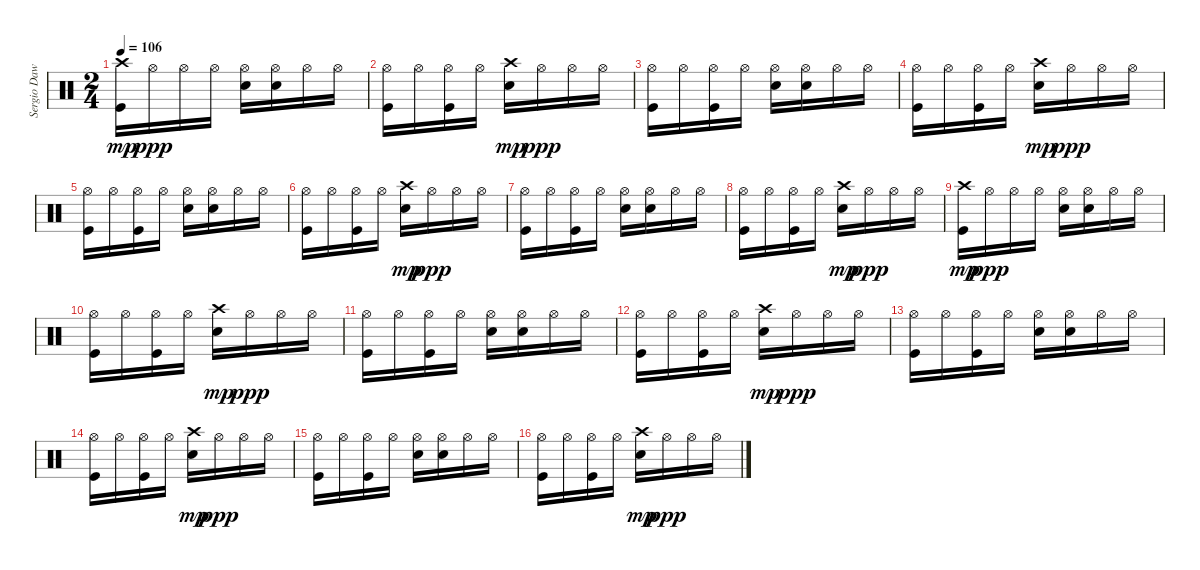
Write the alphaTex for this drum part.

\track ("Sergio Dawi" "Sergio Daw") {instrument percussion}
\staff {score}
\articulation defaults
\ts (2 4)
\tempo 106
\clef neutral
\ks c
("Kick (hit)" "Crash high (hit)").16{dy mp} "Hi-Hat (open)".16{dy ppp} "Hi-Hat (open)".16 "Hi-Hat (open)".16 ("Electric Snare (hit)" "Hi-Hat (open)").16 ("Electric Snare (hit)" "Hi-Hat (open)").16 "Hi-Hat (open)".16 "Hi-Hat (open)".16 |
("Kick (hit)" "Hi-Hat (open)").16 "Hi-Hat (open)".16 ("Kick (hit)" "Hi-Hat (open)").16 "Hi-Hat (open)".16 ("Electric Snare (hit)" "Crash high (hit)").16{dy mp} "Hi-Hat (open)".16{dy ppp} "Hi-Hat (open)".16 "Hi-Hat (open)".16 |
("Kick (hit)" "Hi-Hat (open)").16 "Hi-Hat (open)".16 ("Kick (hit)" "Hi-Hat (open)").16 "Hi-Hat (open)".16 ("Electric Snare (hit)" "Hi-Hat (open)").16 ("Electric Snare (hit)" "Hi-Hat (open)").16 "Hi-Hat (open)".16 "Hi-Hat (open)".16 |
("Kick (hit)" "Hi-Hat (open)").16 "Hi-Hat (open)".16 ("Kick (hit)" "Hi-Hat (open)").16 "Hi-Hat (open)".16 ("Electric Snare (hit)" "Crash high (hit)").16{dy mp} "Hi-Hat (open)".16{dy ppp} "Hi-Hat (open)".16 "Hi-Hat (open)".16 |
("Kick (hit)" "Hi-Hat (open)").16 "Hi-Hat (open)".16 ("Kick (hit)" "Hi-Hat (open)").16 "Hi-Hat (open)".16 ("Electric Snare (hit)" "Hi-Hat (open)").16 ("Electric Snare (hit)" "Hi-Hat (open)").16 "Hi-Hat (open)".16 "Hi-Hat (open)".16 |
("Kick (hit)" "Hi-Hat (open)").16 "Hi-Hat (open)".16 ("Kick (hit)" "Hi-Hat (open)").16 "Hi-Hat (open)".16 ("Electric Snare (hit)" "Crash high (hit)").16{dy mp} "Hi-Hat (open)".16{dy ppp} "Hi-Hat (open)".16 "Hi-Hat (open)".16 |
("Kick (hit)" "Hi-Hat (open)").16 "Hi-Hat (open)".16 ("Kick (hit)" "Hi-Hat (open)").16 "Hi-Hat (open)".16 ("Electric Snare (hit)" "Hi-Hat (open)").16 ("Electric Snare (hit)" "Hi-Hat (open)").16 "Hi-Hat (open)".16 "Hi-Hat (open)".16 |
("Kick (hit)" "Hi-Hat (open)").16 "Hi-Hat (open)".16 ("Kick (hit)" "Hi-Hat (open)").16 "Hi-Hat (open)".16 ("Electric Snare (hit)" "Crash high (hit)").16{dy mp} "Hi-Hat (open)".16{dy ppp} "Hi-Hat (open)".16 "Hi-Hat (open)".16 |
("Kick (hit)" "Crash high (hit)").16{dy mp} "Hi-Hat (open)".16{dy ppp} "Hi-Hat (open)".16 "Hi-Hat (open)".16 ("Electric Snare (hit)" "Hi-Hat (open)").16 ("Electric Snare (hit)" "Hi-Hat (open)").16 "Hi-Hat (open)".16 "Hi-Hat (open)".16 |
("Kick (hit)" "Hi-Hat (open)").16 "Hi-Hat (open)".16 ("Kick (hit)" "Hi-Hat (open)").16 "Hi-Hat (open)".16 ("Electric Snare (hit)" "Crash high (hit)").16{dy mp} "Hi-Hat (open)".16{dy ppp} "Hi-Hat (open)".16 "Hi-Hat (open)".16 |
("Kick (hit)" "Hi-Hat (open)").16 "Hi-Hat (open)".16 ("Kick (hit)" "Hi-Hat (open)").16 "Hi-Hat (open)".16 ("Electric Snare (hit)" "Hi-Hat (open)").16 ("Electric Snare (hit)" "Hi-Hat (open)").16 "Hi-Hat (open)".16 "Hi-Hat (open)".16 |
("Kick (hit)" "Hi-Hat (open)").16 "Hi-Hat (open)".16 ("Kick (hit)" "Hi-Hat (open)").16 "Hi-Hat (open)".16 ("Electric Snare (hit)" "Crash high (hit)").16{dy mp} "Hi-Hat (open)".16{dy ppp} "Hi-Hat (open)".16 "Hi-Hat (open)".16 |
("Kick (hit)" "Hi-Hat (open)").16 "Hi-Hat (open)".16 ("Kick (hit)" "Hi-Hat (open)").16 "Hi-Hat (open)".16 ("Electric Snare (hit)" "Hi-Hat (open)").16 ("Electric Snare (hit)" "Hi-Hat (open)").16 "Hi-Hat (open)".16 "Hi-Hat (open)".16 |
("Kick (hit)" "Hi-Hat (open)").16 "Hi-Hat (open)".16 ("Kick (hit)" "Hi-Hat (open)").16 "Hi-Hat (open)".16 ("Electric Snare (hit)" "Crash high (hit)").16{dy mp} "Hi-Hat (open)".16{dy ppp} "Hi-Hat (open)".16 "Hi-Hat (open)".16 |
("Kick (hit)" "Hi-Hat (open)").16 "Hi-Hat (open)".16 ("Kick (hit)" "Hi-Hat (open)").16 "Hi-Hat (open)".16 ("Electric Snare (hit)" "Hi-Hat (open)").16 ("Electric Snare (hit)" "Hi-Hat (open)").16 "Hi-Hat (open)".16 "Hi-Hat (open)".16 |
("Kick (hit)" "Hi-Hat (open)").16 "Hi-Hat (open)".16 ("Kick (hit)" "Hi-Hat (open)").16 "Hi-Hat (open)".16 ("Electric Snare (hit)" "Crash high (hit)").16{dy mp} "Hi-Hat (open)".16{dy ppp} "Hi-Hat (open)".16 "Hi-Hat (open)".16
